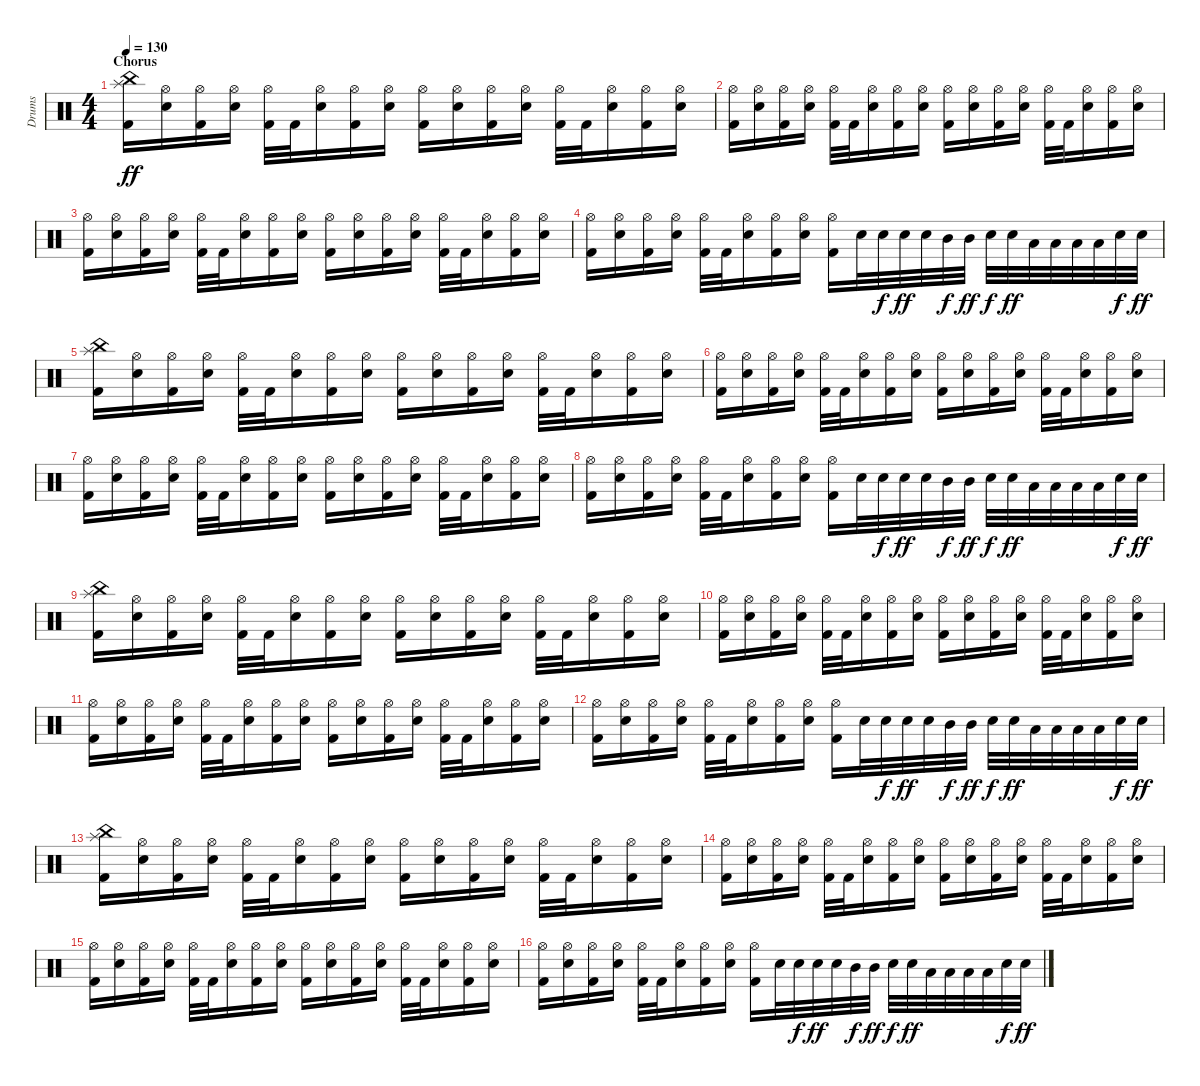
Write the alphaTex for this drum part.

\track ("Drums" "Drums") {instrument percussion}
\staff {score}
\articulation defaults
\ts (4 4)
\section ("" "Chorus")
\tempo 130
\clef neutral
\ks c
("Kick (hit) 2" "Splash (hit)" "China (hit)").16{dy ff} ("Snare (hit) 2" "Hi-Hat (open)").16 ("Kick (hit) 2" "Hi-Hat (open)").16 ("Snare (hit) 2" "Hi-Hat (open)").16 ("Kick (hit) 2" "Hi-Hat (open)").32 "Kick (hit) 2".32 ("Electric Snare (hit)" "Hi-Hat (open)").16 ("Kick (hit) 2" "Hi-Hat (open)").16 ("Snare (hit) 2" "Hi-Hat (open)").16 ("Kick (hit) 2" "Hi-Hat (open)").16 ("Snare (hit) 2" "Hi-Hat (open)").16 ("Kick (hit) 2" "Hi-Hat (open)").16 ("Snare (hit) 2" "Hi-Hat (open)").16 ("Kick (hit) 2" "Hi-Hat (open)").32 "Kick (hit) 2".32 ("Electric Snare (hit)" "Hi-Hat (open)").16 ("Kick (hit) 2" "Hi-Hat (open)").16 ("Snare (hit) 2" "Hi-Hat (open)").16 |
("Kick (hit) 2" "Hi-Hat (open)").16 ("Snare (hit) 2" "Hi-Hat (open)").16 ("Kick (hit) 2" "Hi-Hat (open)").16 ("Snare (hit) 2" "Hi-Hat (open)").16 ("Kick (hit) 2" "Hi-Hat (open)").32 "Kick (hit) 2".32 ("Snare (hit) 2" "Hi-Hat (open)").16 ("Kick (hit) 2" "Hi-Hat (open)").16 ("Snare (hit) 2" "Hi-Hat (open)").16 ("Kick (hit) 2" "Hi-Hat (open)").16 ("Snare (hit) 2" "Hi-Hat (open)").16 ("Kick (hit) 2" "Hi-Hat (open)").16 ("Snare (hit) 2" "Hi-Hat (open)").16 ("Kick (hit) 2" "Hi-Hat (open)").32 "Kick (hit) 2".32 ("Snare (hit) 2" "Hi-Hat (open)").16 ("Kick (hit) 2" "Hi-Hat (open)").16 ("Snare (hit) 2" "Hi-Hat (open)").16 |
("Kick (hit) 2" "Hi-Hat (open)").16 ("Snare (hit) 2" "Hi-Hat (open)").16 ("Kick (hit) 2" "Hi-Hat (open)").16 ("Snare (hit) 2" "Hi-Hat (open)").16 ("Kick (hit) 2" "Hi-Hat (open)").32 "Kick (hit) 2".32 ("Snare (hit) 2" "Hi-Hat (open)").16 ("Kick (hit) 2" "Hi-Hat (open)").16 ("Snare (hit) 2" "Hi-Hat (open)").16 ("Kick (hit) 2" "Hi-Hat (open)").16 ("Snare (hit) 2" "Hi-Hat (open)").16 ("Kick (hit) 2" "Hi-Hat (open)").16 ("Snare (hit) 2" "Hi-Hat (open)").16 ("Kick (hit) 2" "Hi-Hat (open)").32 "Kick (hit) 2".32 ("Snare (hit) 2" "Hi-Hat (open)").16 ("Kick (hit) 2" "Hi-Hat (open)").16 ("Snare (hit) 2" "Hi-Hat (open)").16 |
("Kick (hit) 2" "Hi-Hat (open)").16 ("Snare (hit) 2" "Hi-Hat (open)").16 ("Kick (hit) 2" "Hi-Hat (open)").16 ("Snare (hit) 2" "Hi-Hat (open)").16 ("Kick (hit) 2" "Hi-Hat (open)").32 "Kick (hit) 2".32 ("Electric Snare (hit)" "Hi-Hat (open)").16 ("Kick (hit) 2" "Hi-Hat (open)").16 ("Snare (hit) 2" "Hi-Hat (open)").16 ("Kick (hit) 2" "Hi-Hat (open)").16 "Snare (hit) 2".32 "Snare (hit) 2".32{dy f} "Snare (hit) 2".32{dy ff} "Snare (hit) 2".32 "Mid Tom (hit)".32{dy f} "Mid Tom (hit)".32{dy ff} "Snare (hit) 2".32{dy f} "Snare (hit) 2".32{dy ff} "Low Tom (hit)".32 "Low Tom (hit)".32 "Low Tom (hit)".32 "Low Tom (hit)".32 "Snare (hit) 2".32{dy f} "Snare (hit) 2".32{dy ff} |
("Kick (hit) 2" "Splash (hit)" "China (hit)").16 ("Snare (hit) 2" "Hi-Hat (open)").16 ("Kick (hit) 2" "Hi-Hat (open)").16 ("Snare (hit) 2" "Hi-Hat (open)").16 ("Kick (hit) 2" "Hi-Hat (open)").32 "Kick (hit) 2".32 ("Electric Snare (hit)" "Hi-Hat (open)").16 ("Kick (hit) 2" "Hi-Hat (open)").16 ("Snare (hit) 2" "Hi-Hat (open)").16 ("Kick (hit) 2" "Hi-Hat (open)").16 ("Snare (hit) 2" "Hi-Hat (open)").16 ("Kick (hit) 2" "Hi-Hat (open)").16 ("Snare (hit) 2" "Hi-Hat (open)").16 ("Kick (hit) 2" "Hi-Hat (open)").32 "Kick (hit) 2".32 ("Electric Snare (hit)" "Hi-Hat (open)").16 ("Kick (hit) 2" "Hi-Hat (open)").16 ("Snare (hit) 2" "Hi-Hat (open)").16 |
("Kick (hit) 2" "Hi-Hat (open)").16 ("Snare (hit) 2" "Hi-Hat (open)").16 ("Kick (hit) 2" "Hi-Hat (open)").16 ("Snare (hit) 2" "Hi-Hat (open)").16 ("Kick (hit) 2" "Hi-Hat (open)").32 "Kick (hit) 2".32 ("Snare (hit) 2" "Hi-Hat (open)").16 ("Kick (hit) 2" "Hi-Hat (open)").16 ("Snare (hit) 2" "Hi-Hat (open)").16 ("Kick (hit) 2" "Hi-Hat (open)").16 ("Snare (hit) 2" "Hi-Hat (open)").16 ("Kick (hit) 2" "Hi-Hat (open)").16 ("Snare (hit) 2" "Hi-Hat (open)").16 ("Kick (hit) 2" "Hi-Hat (open)").32 "Kick (hit) 2".32 ("Snare (hit) 2" "Hi-Hat (open)").16 ("Kick (hit) 2" "Hi-Hat (open)").16 ("Snare (hit) 2" "Hi-Hat (open)").16 |
("Kick (hit) 2" "Hi-Hat (open)").16 ("Snare (hit) 2" "Hi-Hat (open)").16 ("Kick (hit) 2" "Hi-Hat (open)").16 ("Snare (hit) 2" "Hi-Hat (open)").16 ("Kick (hit) 2" "Hi-Hat (open)").32 "Kick (hit) 2".32 ("Snare (hit) 2" "Hi-Hat (open)").16 ("Kick (hit) 2" "Hi-Hat (open)").16 ("Snare (hit) 2" "Hi-Hat (open)").16 ("Kick (hit) 2" "Hi-Hat (open)").16 ("Snare (hit) 2" "Hi-Hat (open)").16 ("Kick (hit) 2" "Hi-Hat (open)").16 ("Snare (hit) 2" "Hi-Hat (open)").16 ("Kick (hit) 2" "Hi-Hat (open)").32 "Kick (hit) 2".32 ("Snare (hit) 2" "Hi-Hat (open)").16 ("Kick (hit) 2" "Hi-Hat (open)").16 ("Snare (hit) 2" "Hi-Hat (open)").16 |
("Kick (hit) 2" "Hi-Hat (open)").16 ("Snare (hit) 2" "Hi-Hat (open)").16 ("Kick (hit) 2" "Hi-Hat (open)").16 ("Snare (hit) 2" "Hi-Hat (open)").16 ("Kick (hit) 2" "Hi-Hat (open)").32 "Kick (hit) 2".32 ("Electric Snare (hit)" "Hi-Hat (open)").16 ("Kick (hit) 2" "Hi-Hat (open)").16 ("Snare (hit) 2" "Hi-Hat (open)").16 ("Kick (hit) 2" "Hi-Hat (open)").16 "Snare (hit) 2".32 "Snare (hit) 2".32{dy f} "Snare (hit) 2".32{dy ff} "Snare (hit) 2".32 "Mid Tom (hit)".32{dy f} "Mid Tom (hit)".32{dy ff} "Snare (hit) 2".32{dy f} "Snare (hit) 2".32{dy ff} "Low Tom (hit)".32 "Low Tom (hit)".32 "Low Tom (hit)".32 "Low Tom (hit)".32 "Snare (hit) 2".32{dy f} "Snare (hit) 2".32{dy ff} |
("Kick (hit) 2" "Splash (hit)" "China (hit)").16 ("Snare (hit) 2" "Hi-Hat (open)").16 ("Kick (hit) 2" "Hi-Hat (open)").16 ("Snare (hit) 2" "Hi-Hat (open)").16 ("Kick (hit) 2" "Hi-Hat (open)").32 "Kick (hit) 2".32 ("Electric Snare (hit)" "Hi-Hat (open)").16 ("Kick (hit) 2" "Hi-Hat (open)").16 ("Snare (hit) 2" "Hi-Hat (open)").16 ("Kick (hit) 2" "Hi-Hat (open)").16 ("Snare (hit) 2" "Hi-Hat (open)").16 ("Kick (hit) 2" "Hi-Hat (open)").16 ("Snare (hit) 2" "Hi-Hat (open)").16 ("Kick (hit) 2" "Hi-Hat (open)").32 "Kick (hit) 2".32 ("Electric Snare (hit)" "Hi-Hat (open)").16 ("Kick (hit) 2" "Hi-Hat (open)").16 ("Snare (hit) 2" "Hi-Hat (open)").16 |
("Kick (hit) 2" "Hi-Hat (open)").16 ("Snare (hit) 2" "Hi-Hat (open)").16 ("Kick (hit) 2" "Hi-Hat (open)").16 ("Snare (hit) 2" "Hi-Hat (open)").16 ("Kick (hit) 2" "Hi-Hat (open)").32 "Kick (hit) 2".32 ("Snare (hit) 2" "Hi-Hat (open)").16 ("Kick (hit) 2" "Hi-Hat (open)").16 ("Snare (hit) 2" "Hi-Hat (open)").16 ("Kick (hit) 2" "Hi-Hat (open)").16 ("Snare (hit) 2" "Hi-Hat (open)").16 ("Kick (hit) 2" "Hi-Hat (open)").16 ("Snare (hit) 2" "Hi-Hat (open)").16 ("Kick (hit) 2" "Hi-Hat (open)").32 "Kick (hit) 2".32 ("Snare (hit) 2" "Hi-Hat (open)").16 ("Kick (hit) 2" "Hi-Hat (open)").16 ("Snare (hit) 2" "Hi-Hat (open)").16 |
("Kick (hit) 2" "Hi-Hat (open)").16 ("Snare (hit) 2" "Hi-Hat (open)").16 ("Kick (hit) 2" "Hi-Hat (open)").16 ("Snare (hit) 2" "Hi-Hat (open)").16 ("Kick (hit) 2" "Hi-Hat (open)").32 "Kick (hit) 2".32 ("Snare (hit) 2" "Hi-Hat (open)").16 ("Kick (hit) 2" "Hi-Hat (open)").16 ("Snare (hit) 2" "Hi-Hat (open)").16 ("Kick (hit) 2" "Hi-Hat (open)").16 ("Snare (hit) 2" "Hi-Hat (open)").16 ("Kick (hit) 2" "Hi-Hat (open)").16 ("Snare (hit) 2" "Hi-Hat (open)").16 ("Kick (hit) 2" "Hi-Hat (open)").32 "Kick (hit) 2".32 ("Snare (hit) 2" "Hi-Hat (open)").16 ("Kick (hit) 2" "Hi-Hat (open)").16 ("Snare (hit) 2" "Hi-Hat (open)").16 |
("Kick (hit) 2" "Hi-Hat (open)").16 ("Snare (hit) 2" "Hi-Hat (open)").16 ("Kick (hit) 2" "Hi-Hat (open)").16 ("Snare (hit) 2" "Hi-Hat (open)").16 ("Kick (hit) 2" "Hi-Hat (open)").32 "Kick (hit) 2".32 ("Electric Snare (hit)" "Hi-Hat (open)").16 ("Kick (hit) 2" "Hi-Hat (open)").16 ("Snare (hit) 2" "Hi-Hat (open)").16 ("Kick (hit) 2" "Hi-Hat (open)").16 "Snare (hit) 2".32 "Snare (hit) 2".32{dy f} "Snare (hit) 2".32{dy ff} "Snare (hit) 2".32 "Mid Tom (hit)".32{dy f} "Mid Tom (hit)".32{dy ff} "Snare (hit) 2".32{dy f} "Snare (hit) 2".32{dy ff} "Low Tom (hit)".32 "Low Tom (hit)".32 "Low Tom (hit)".32 "Low Tom (hit)".32 "Snare (hit) 2".32{dy f} "Snare (hit) 2".32{dy ff} |
("Kick (hit) 2" "Splash (hit)" "China (hit)").16 ("Snare (hit) 2" "Hi-Hat (open)").16 ("Kick (hit) 2" "Hi-Hat (open)").16 ("Snare (hit) 2" "Hi-Hat (open)").16 ("Kick (hit) 2" "Hi-Hat (open)").32 "Kick (hit) 2".32 ("Electric Snare (hit)" "Hi-Hat (open)").16 ("Kick (hit) 2" "Hi-Hat (open)").16 ("Snare (hit) 2" "Hi-Hat (open)").16 ("Kick (hit) 2" "Hi-Hat (open)").16 ("Snare (hit) 2" "Hi-Hat (open)").16 ("Kick (hit) 2" "Hi-Hat (open)").16 ("Snare (hit) 2" "Hi-Hat (open)").16 ("Kick (hit) 2" "Hi-Hat (open)").32 "Kick (hit) 2".32 ("Electric Snare (hit)" "Hi-Hat (open)").16 ("Kick (hit) 2" "Hi-Hat (open)").16 ("Snare (hit) 2" "Hi-Hat (open)").16 |
("Kick (hit) 2" "Hi-Hat (open)").16 ("Snare (hit) 2" "Hi-Hat (open)").16 ("Kick (hit) 2" "Hi-Hat (open)").16 ("Snare (hit) 2" "Hi-Hat (open)").16 ("Kick (hit) 2" "Hi-Hat (open)").32 "Kick (hit) 2".32 ("Snare (hit) 2" "Hi-Hat (open)").16 ("Kick (hit) 2" "Hi-Hat (open)").16 ("Snare (hit) 2" "Hi-Hat (open)").16 ("Kick (hit) 2" "Hi-Hat (open)").16 ("Snare (hit) 2" "Hi-Hat (open)").16 ("Kick (hit) 2" "Hi-Hat (open)").16 ("Snare (hit) 2" "Hi-Hat (open)").16 ("Kick (hit) 2" "Hi-Hat (open)").32 "Kick (hit) 2".32 ("Snare (hit) 2" "Hi-Hat (open)").16 ("Kick (hit) 2" "Hi-Hat (open)").16 ("Snare (hit) 2" "Hi-Hat (open)").16 |
("Kick (hit) 2" "Hi-Hat (open)").16 ("Snare (hit) 2" "Hi-Hat (open)").16 ("Kick (hit) 2" "Hi-Hat (open)").16 ("Snare (hit) 2" "Hi-Hat (open)").16 ("Kick (hit) 2" "Hi-Hat (open)").32 "Kick (hit) 2".32 ("Snare (hit) 2" "Hi-Hat (open)").16 ("Kick (hit) 2" "Hi-Hat (open)").16 ("Snare (hit) 2" "Hi-Hat (open)").16 ("Kick (hit) 2" "Hi-Hat (open)").16 ("Snare (hit) 2" "Hi-Hat (open)").16 ("Kick (hit) 2" "Hi-Hat (open)").16 ("Snare (hit) 2" "Hi-Hat (open)").16 ("Kick (hit) 2" "Hi-Hat (open)").32 "Kick (hit) 2".32 ("Snare (hit) 2" "Hi-Hat (open)").16 ("Kick (hit) 2" "Hi-Hat (open)").16 ("Snare (hit) 2" "Hi-Hat (open)").16 |
("Kick (hit) 2" "Hi-Hat (open)").16 ("Snare (hit) 2" "Hi-Hat (open)").16 ("Kick (hit) 2" "Hi-Hat (open)").16 ("Snare (hit) 2" "Hi-Hat (open)").16 ("Kick (hit) 2" "Hi-Hat (open)").32 "Kick (hit) 2".32 ("Electric Snare (hit)" "Hi-Hat (open)").16 ("Kick (hit) 2" "Hi-Hat (open)").16 ("Snare (hit) 2" "Hi-Hat (open)").16 ("Kick (hit) 2" "Hi-Hat (open)").16 "Snare (hit) 2".32 "Snare (hit) 2".32{dy f} "Snare (hit) 2".32{dy ff} "Snare (hit) 2".32 "Mid Tom (hit)".32{dy f} "Mid Tom (hit)".32{dy ff} "Snare (hit) 2".32{dy f} "Snare (hit) 2".32{dy ff} "Low Tom (hit)".32 "Low Tom (hit)".32 "Low Tom (hit)".32 "Low Tom (hit)".32 "Snare (hit) 2".32{dy f} "Snare (hit) 2".32{dy ff}
